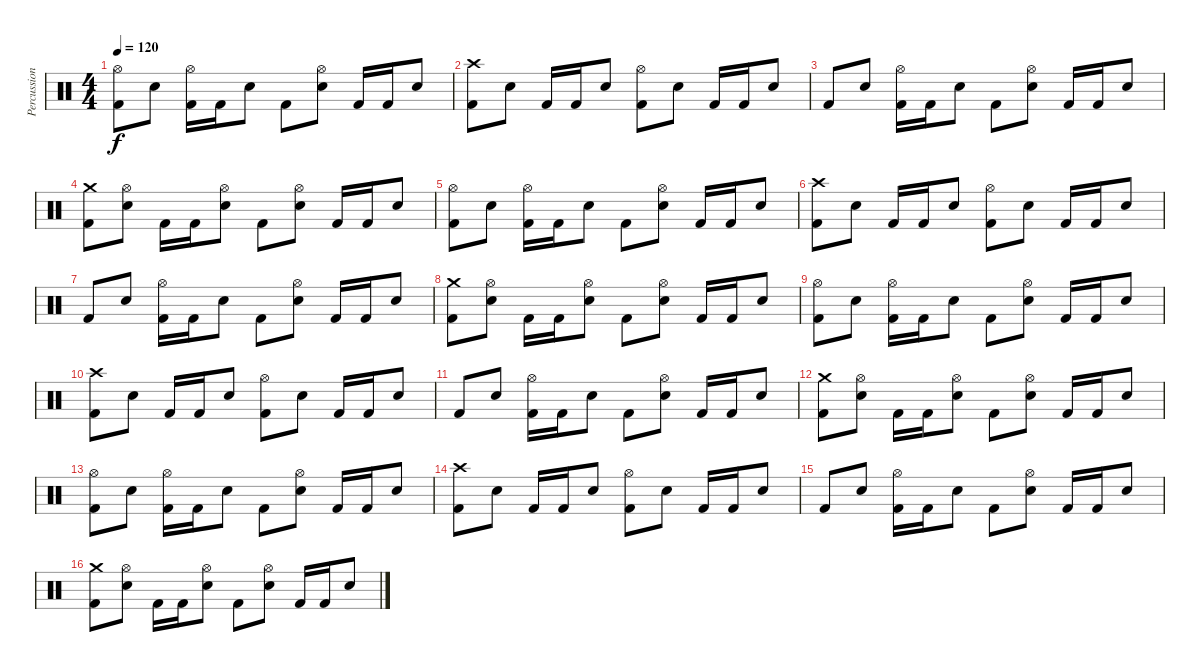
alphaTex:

\track ("Percussion" "Percussion") {instrument percussion}
\staff {score}
\articulation defaults
\ts (4 4)
\tempo 120
\clef neutral
\ks aminor
("Kick (hit) 2" "Hi-Hat (open)").8{dy f} "Snare (hit) 2".8 ("Kick (hit) 2" "Hi-Hat (open)").16 "Kick (hit) 2".16 "Snare (hit) 2".8 "Kick (hit) 2".8 ("Snare (hit) 2" "Hi-Hat (open)").8 "Kick (hit) 2".16 "Kick (hit) 2".16 "Snare (hit) 2".8 |
\ks c
("Kick (hit) 2" "Crash high (hit)").8 "Snare (hit) 2".8 "Kick (hit) 2".16 "Kick (hit) 2".16 "Snare (hit) 2".8 ("Kick (hit) 2" "Hi-Hat (open)").8 "Snare (hit) 2".8 "Kick (hit) 2".16 "Kick (hit) 2".16 "Snare (hit) 2".8 |
\ks aminor "Kick (hit) 2".8 "Snare (hit) 2".8
("Kick (hit) 2" "Hi-Hat (open)").16 "Kick (hit) 2".16 "Snare (hit) 2".8 "Kick (hit) 2".8 ("Snare (hit) 2" "Hi-Hat (open)").8 "Kick (hit) 2".16 "Kick (hit) 2".16 "Snare (hit) 2".8 |
\ks c
("Kick (hit) 2" "Crash medium (hit)").8 ("Snare (hit) 2" "Hi-Hat (open)").8 "Kick (hit) 2".16 "Kick (hit) 2".16 ("Snare (hit) 2" "Hi-Hat (open)").8 "Kick (hit) 2".8 ("Snare (hit) 2" "Hi-Hat (open)").8 "Kick (hit) 2".16 "Kick (hit) 2".16 "Snare (hit) 2".8 |
\ks aminor
("Kick (hit) 2" "Hi-Hat (open)").8 "Snare (hit) 2".8 ("Kick (hit) 2" "Hi-Hat (open)").16 "Kick (hit) 2".16 "Snare (hit) 2".8 "Kick (hit) 2".8 ("Snare (hit) 2" "Hi-Hat (open)").8 "Kick (hit) 2".16 "Kick (hit) 2".16 "Snare (hit) 2".8 |
\ks c
("Kick (hit) 2" "Crash high (hit)").8 "Snare (hit) 2".8 "Kick (hit) 2".16 "Kick (hit) 2".16 "Snare (hit) 2".8 ("Kick (hit) 2" "Hi-Hat (open)").8 "Snare (hit) 2".8 "Kick (hit) 2".16 "Kick (hit) 2".16 "Snare (hit) 2".8 |
\ks aminor "Kick (hit) 2".8 "Snare (hit) 2".8
("Kick (hit) 2" "Hi-Hat (open)").16 "Kick (hit) 2".16 "Snare (hit) 2".8 "Kick (hit) 2".8 ("Snare (hit) 2" "Hi-Hat (open)").8 "Kick (hit) 2".16 "Kick (hit) 2".16 "Snare (hit) 2".8 |
\ks c
("Kick (hit) 2" "Crash medium (hit)").8 ("Snare (hit) 2" "Hi-Hat (open)").8 "Kick (hit) 2".16 "Kick (hit) 2".16 ("Snare (hit) 2" "Hi-Hat (open)").8 "Kick (hit) 2".8 ("Snare (hit) 2" "Hi-Hat (open)").8 "Kick (hit) 2".16 "Kick (hit) 2".16 "Snare (hit) 2".8 |
("Kick (hit) 2" "Hi-Hat (open)").8 "Snare (hit) 2".8 ("Kick (hit) 2" "Hi-Hat (open)").16 "Kick (hit) 2".16 "Snare (hit) 2".8 "Kick (hit) 2".8 ("Snare (hit) 2" "Hi-Hat (open)").8 "Kick (hit) 2".16 "Kick (hit) 2".16 "Snare (hit) 2".8 |
\ks aminor
("Kick (hit) 2" "Crash high (hit)").8 "Snare (hit) 2".8 "Kick (hit) 2".16 "Kick (hit) 2".16 "Snare (hit) 2".8 ("Kick (hit) 2" "Hi-Hat (open)").8 "Snare (hit) 2".8 "Kick (hit) 2".16 "Kick (hit) 2".16 "Snare (hit) 2".8 |
\ks c "Kick (hit) 2".8 "Snare (hit) 2".8
("Kick (hit) 2" "Hi-Hat (open)").16 "Kick (hit) 2".16 "Snare (hit) 2".8 "Kick (hit) 2".8 ("Snare (hit) 2" "Hi-Hat (open)").8 "Kick (hit) 2".16 "Kick (hit) 2".16 "Snare (hit) 2".8 |
("Kick (hit) 2" "Crash medium (hit)").8 ("Snare (hit) 2" "Hi-Hat (open)").8 "Kick (hit) 2".16 "Kick (hit) 2".16 ("Snare (hit) 2" "Hi-Hat (open)").8 "Kick (hit) 2".8 ("Snare (hit) 2" "Hi-Hat (open)").8 "Kick (hit) 2".16 "Kick (hit) 2".16 "Snare (hit) 2".8 |
\ks aminor
("Kick (hit) 2" "Hi-Hat (open)").8 "Snare (hit) 2".8 ("Kick (hit) 2" "Hi-Hat (open)").16 "Kick (hit) 2".16 "Snare (hit) 2".8 "Kick (hit) 2".8 ("Snare (hit) 2" "Hi-Hat (open)").8 "Kick (hit) 2".16 "Kick (hit) 2".16 "Snare (hit) 2".8 |
("Kick (hit) 2" "Crash high (hit)").8 "Snare (hit) 2".8 "Kick (hit) 2".16 "Kick (hit) 2".16 "Snare (hit) 2".8 ("Kick (hit) 2" "Hi-Hat (open)").8 "Snare (hit) 2".8 "Kick (hit) 2".16 "Kick (hit) 2".16 "Snare (hit) 2".8 |
"Kick (hit) 2".8 "Snare (hit) 2".8 ("Kick (hit) 2" "Hi-Hat (open)").16 "Kick (hit) 2".16 "Snare (hit) 2".8 "Kick (hit) 2".8 ("Snare (hit) 2" "Hi-Hat (open)").8 "Kick (hit) 2".16 "Kick (hit) 2".16 "Snare (hit) 2".8 |
("Kick (hit) 2" "Crash medium (hit)").8 ("Snare (hit) 2" "Hi-Hat (open)").8 "Kick (hit) 2".16 "Kick (hit) 2".16 ("Snare (hit) 2" "Hi-Hat (open)").8 "Kick (hit) 2".8 ("Snare (hit) 2" "Hi-Hat (open)").8 "Kick (hit) 2".16 "Kick (hit) 2".16 "Snare (hit) 2".8
